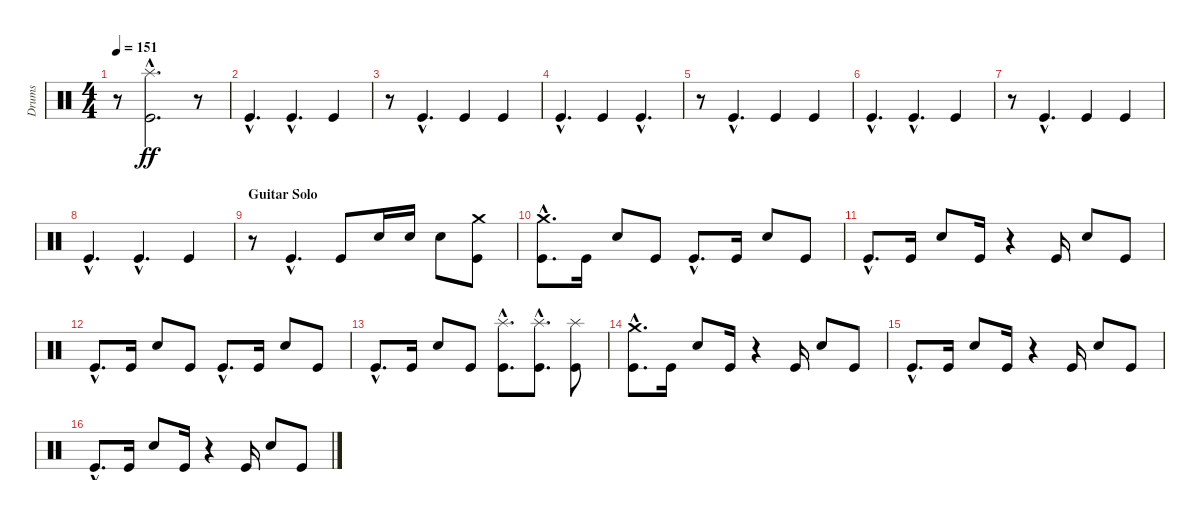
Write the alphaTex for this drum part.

\track ("Drums" "Drums") {instrument percussion}
\staff {score}
\articulation defaults
\ts (4 4)
\tempo 151
\clef neutral
\ks c
r.8{dy ff} ("Splash (hit)"{hac} "Kick (hit)"{hac}).2{d} r.8 |
"Kick (hit)"{hac}.4{d} "Kick (hit)"{hac}.4{d} "Kick (hit)".4 |
r.8 "Kick (hit)"{hac}.4{d} "Kick (hit)".4 "Kick (hit)".4 |
"Kick (hit)"{hac}.4{d} "Kick (hit)".4 "Kick (hit)"{hac}.4{d} |
r.8 "Kick (hit)"{hac}.4{d} "Kick (hit)".4 "Kick (hit)".4 |
"Kick (hit)"{hac}.4{d} "Kick (hit)"{hac}.4{d} "Kick (hit)".4 |
r.8 "Kick (hit)"{hac}.4{d} "Kick (hit)".4 "Kick (hit)".4 |
"Kick (hit)"{hac}.4{d} "Kick (hit)"{hac}.4{d} "Kick (hit)".4 |
\section ("" "Guitar Solo")
r.8 "Kick (hit)"{hac}.4{d} "Kick (hit)".8 "Snare (hit) 2".16 "Snare (hit) 2".16 "Snare (hit) 2".8 ("Crash medium (hit)" "Kick (hit)").8 |
("Crash medium (hit)"{hac} "Kick (hit)"{hac}).8{d} "Kick (hit)".16 "Snare (hit) 2".8 "Kick (hit)".8 "Kick (hit)"{hac}.8{d} "Kick (hit)".16 "Snare (hit) 2".8 "Kick (hit)".8 |
"Kick (hit)"{hac}.8{d} "Kick (hit)".16 "Snare (hit) 2".8 "Kick (hit)".16 r.4 "Kick (hit)".16 "Snare (hit) 2".8 "Kick (hit)".8 |
"Kick (hit)"{hac}.8{d} "Kick (hit)".16 "Snare (hit) 2".8 "Kick (hit)".8 "Kick (hit)"{hac}.8{d} "Kick (hit)".16 "Snare (hit) 2".8 "Kick (hit)".8 |
"Kick (hit)"{hac}.8{d} "Kick (hit)".16 "Snare (hit) 2".8 "Kick (hit)".8 ("Splash (hit)"{hac} "Kick (hit)"{hac}).8{d} ("Splash (hit)"{hac} "Kick (hit)"{hac}).8{d} ("Splash (hit)" "Kick (hit)").8 |
("Crash medium (hit)"{hac} "Kick (hit)"{hac}).8{d} "Kick (hit)".16 "Snare (hit) 2".8 "Kick (hit)".16 r.4 "Kick (hit)".16 "Snare (hit) 2".8 "Kick (hit)".8 |
"Kick (hit)"{hac}.8{d} "Kick (hit)".16 "Snare (hit) 2".8 "Kick (hit)".16 r.4 "Kick (hit)".16 "Snare (hit) 2".8 "Kick (hit)".8 |
"Kick (hit)"{hac}.8{d} "Kick (hit)".16 "Snare (hit) 2".8 "Kick (hit)".16 r.4 "Kick (hit)".16 "Snare (hit) 2".8 "Kick (hit)".8
